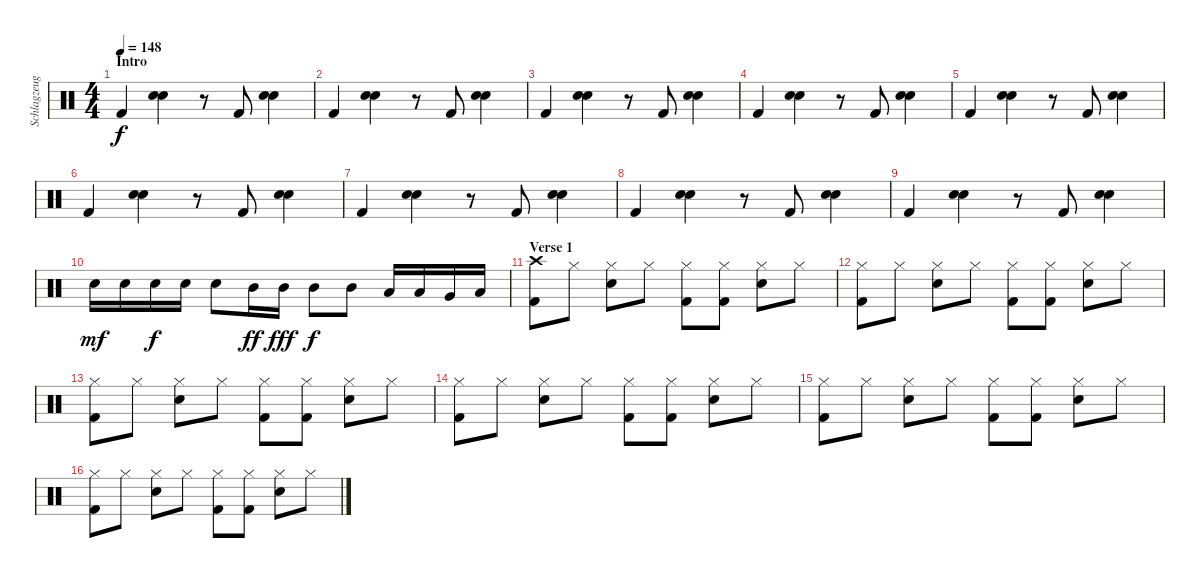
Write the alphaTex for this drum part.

\track ("Schlagzeug" "Schlagzeug") {instrument percussion}
\staff {score}
\articulation defaults
\ts (4 4)
\section ("" "Intro")
\tempo 148
\clef neutral
\ks c "Kick (hit) 2".4{dy f}
("Snare (hit) 2" "Electric Snare (hit)").4 r.8 "Kick (hit) 2".8 ("Snare (hit) 2" "Electric Snare (hit)").4 |
"Kick (hit) 2".4 ("Snare (hit) 2" "Electric Snare (hit)").4 r.8 "Kick (hit) 2".8 ("Snare (hit) 2" "Electric Snare (hit)").4 |
"Kick (hit) 2".4 ("Snare (hit) 2" "Electric Snare (hit)").4 r.8 "Kick (hit) 2".8 ("Snare (hit) 2" "Electric Snare (hit)").4 |
"Kick (hit) 2".4 ("Snare (hit) 2" "Electric Snare (hit)").4 r.8 "Kick (hit) 2".8 ("Snare (hit) 2" "Electric Snare (hit)").4 |
"Kick (hit) 2".4 ("Snare (hit) 2" "Electric Snare (hit)").4 r.8 "Kick (hit) 2".8 ("Snare (hit) 2" "Electric Snare (hit)").4 |
"Kick (hit) 2".4 ("Snare (hit) 2" "Electric Snare (hit)").4 r.8 "Kick (hit) 2".8 ("Snare (hit) 2" "Electric Snare (hit)").4 |
"Kick (hit) 2".4 ("Snare (hit) 2" "Electric Snare (hit)").4 r.8 "Kick (hit) 2".8 ("Snare (hit) 2" "Electric Snare (hit)").4 |
"Kick (hit) 2".4 ("Snare (hit) 2" "Electric Snare (hit)").4 r.8 "Kick (hit) 2".8 ("Snare (hit) 2" "Electric Snare (hit)").4 |
"Kick (hit) 2".4 ("Snare (hit) 2" "Electric Snare (hit)").4 r.8 "Kick (hit) 2".8 ("Snare (hit) 2" "Electric Snare (hit)").4 |
"Electric Snare (hit)".16{dy mf} "Electric Snare (hit)".16 "Electric Snare (hit)".16{dy f} "Electric Snare (hit)".16 "Electric Snare (hit)".8 "Mid Tom (hit)".16{dy ff} "Mid Tom (hit)".16{dy fff} "Mid Tom (hit)".8{dy f} "Mid Tom (hit)".8 "Low Tom (hit)".16 "Low Tom (hit)".16 "Very Low Tom (hit)".16 "Low Floor Tom (hit)".16 |
\section ("" "Verse 1")
("Crash high (hit)" "Kick (hit) 2").8 "Hi-Hat (closed)".8 ("Hi-Hat (closed)" "Electric Snare (hit)").8 "Hi-Hat (closed)".8 ("Hi-Hat (closed)" "Kick (hit) 2").8 ("Hi-Hat (closed)" "Kick (hit) 2").8 ("Hi-Hat (closed)" "Electric Snare (hit)").8 "Hi-Hat (closed)".8 |
("Hi-Hat (closed)" "Kick (hit) 2").8 "Hi-Hat (closed)".8 ("Hi-Hat (closed)" "Electric Snare (hit)").8 "Hi-Hat (closed)".8 ("Hi-Hat (closed)" "Kick (hit) 2").8 ("Hi-Hat (closed)" "Kick (hit) 2").8 ("Hi-Hat (closed)" "Electric Snare (hit)").8 "Hi-Hat (closed)".8 |
("Hi-Hat (closed)" "Kick (hit) 2").8 "Hi-Hat (closed)".8 ("Hi-Hat (closed)" "Electric Snare (hit)").8 "Hi-Hat (closed)".8 ("Hi-Hat (closed)" "Kick (hit) 2").8 ("Hi-Hat (closed)" "Kick (hit) 2").8 ("Hi-Hat (closed)" "Electric Snare (hit)").8 "Hi-Hat (closed)".8 |
("Hi-Hat (closed)" "Kick (hit) 2").8 "Hi-Hat (closed)".8 ("Hi-Hat (closed)" "Electric Snare (hit)").8 "Hi-Hat (closed)".8 ("Hi-Hat (closed)" "Kick (hit) 2").8 ("Hi-Hat (closed)" "Kick (hit) 2").8 ("Hi-Hat (closed)" "Electric Snare (hit)").8 "Hi-Hat (closed)".8 |
("Hi-Hat (closed)" "Kick (hit) 2").8 "Hi-Hat (closed)".8 ("Hi-Hat (closed)" "Electric Snare (hit)").8 "Hi-Hat (closed)".8 ("Hi-Hat (closed)" "Kick (hit) 2").8 ("Hi-Hat (closed)" "Kick (hit) 2").8 ("Hi-Hat (closed)" "Electric Snare (hit)").8 "Hi-Hat (closed)".8 |
("Hi-Hat (closed)" "Kick (hit) 2").8 "Hi-Hat (closed)".8 ("Hi-Hat (closed)" "Electric Snare (hit)").8 "Hi-Hat (closed)".8 ("Hi-Hat (closed)" "Kick (hit) 2").8 ("Hi-Hat (closed)" "Kick (hit) 2").8 ("Hi-Hat (closed)" "Electric Snare (hit)").8 "Hi-Hat (closed)".8
